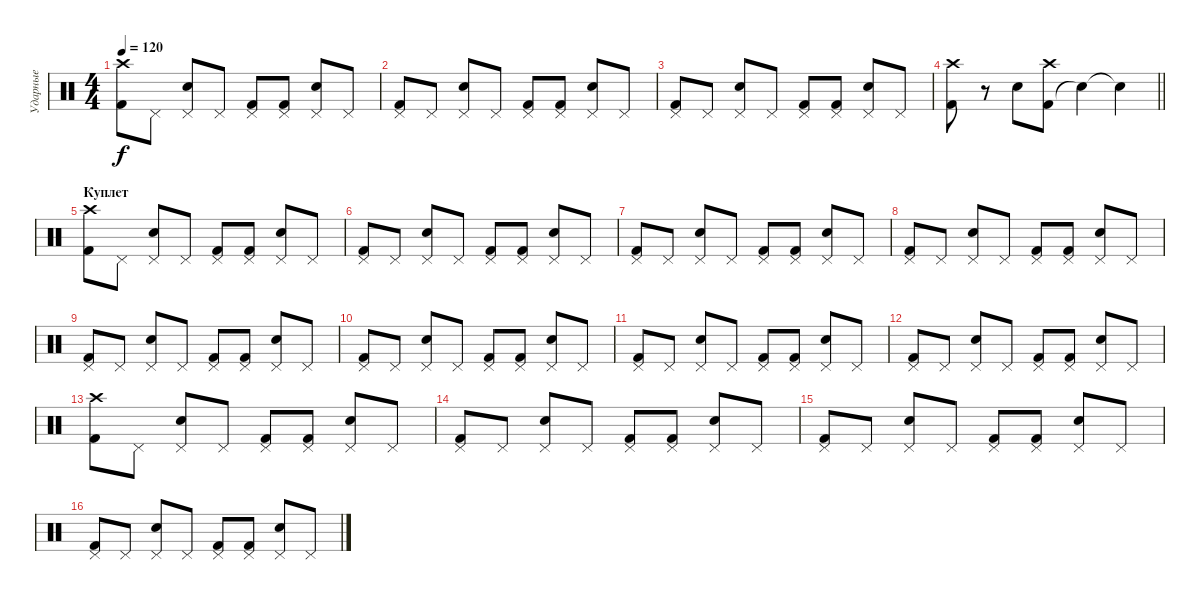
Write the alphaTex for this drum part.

\track ("Ударные" "Ударные") {instrument percussion}
\staff {score}
\articulation defaults
\ts (4 4)
\tempo 120
\clef neutral
\ks c
("Kick (hit) 2" "Crash high (hit)").8{dy f} "Pedal Hi-Hat (hit)".8 ("Electric Snare (hit)" "Pedal Hi-Hat (hit)").8 "Pedal Hi-Hat (hit)".8 ("Kick (hit) 2" "Pedal Hi-Hat (hit)").8 ("Kick (hit) 2" "Pedal Hi-Hat (hit)").8 ("Electric Snare (hit)" "Pedal Hi-Hat (hit)").8 "Pedal Hi-Hat (hit)".8 |
("Kick (hit) 2" "Pedal Hi-Hat (hit)").8 "Pedal Hi-Hat (hit)".8 ("Electric Snare (hit)" "Pedal Hi-Hat (hit)").8 "Pedal Hi-Hat (hit)".8 ("Kick (hit) 2" "Pedal Hi-Hat (hit)").8 ("Kick (hit) 2" "Pedal Hi-Hat (hit)").8 ("Electric Snare (hit)" "Pedal Hi-Hat (hit)").8 "Pedal Hi-Hat (hit)".8 |
("Kick (hit) 2" "Pedal Hi-Hat (hit)").8 "Pedal Hi-Hat (hit)".8 ("Electric Snare (hit)" "Pedal Hi-Hat (hit)").8 "Pedal Hi-Hat (hit)".8 ("Kick (hit) 2" "Pedal Hi-Hat (hit)").8 ("Kick (hit) 2" "Pedal Hi-Hat (hit)").8 ("Electric Snare (hit)" "Pedal Hi-Hat (hit)").8 "Pedal Hi-Hat (hit)".8 |
\barLineRight lightlight
("Kick (hit) 2" "Crash high (hit)").8 r.8 "Electric Snare (hit)".8 ("Kick (hit) 2" "Crash high (hit)").8 "Snare (hit)"{t}.4 "Snare (hit)"{t}.4 |
\section ("" "Куплет")
("Kick (hit) 2" "Crash high (hit)").8 "Pedal Hi-Hat (hit)".8 ("Electric Snare (hit)" "Pedal Hi-Hat (hit)").8 "Pedal Hi-Hat (hit)".8 ("Kick (hit) 2" "Pedal Hi-Hat (hit)").8 ("Kick (hit) 2" "Pedal Hi-Hat (hit)").8 ("Electric Snare (hit)" "Pedal Hi-Hat (hit)").8 "Pedal Hi-Hat (hit)".8 |
("Kick (hit) 2" "Pedal Hi-Hat (hit)").8 "Pedal Hi-Hat (hit)".8 ("Electric Snare (hit)" "Pedal Hi-Hat (hit)").8 "Pedal Hi-Hat (hit)".8 ("Kick (hit) 2" "Pedal Hi-Hat (hit)").8 ("Kick (hit) 2" "Pedal Hi-Hat (hit)").8 ("Electric Snare (hit)" "Pedal Hi-Hat (hit)").8 "Pedal Hi-Hat (hit)".8 |
("Kick (hit) 2" "Pedal Hi-Hat (hit)").8 "Pedal Hi-Hat (hit)".8 ("Electric Snare (hit)" "Pedal Hi-Hat (hit)").8 "Pedal Hi-Hat (hit)".8 ("Kick (hit) 2" "Pedal Hi-Hat (hit)").8 ("Kick (hit) 2" "Pedal Hi-Hat (hit)").8 ("Electric Snare (hit)" "Pedal Hi-Hat (hit)").8 "Pedal Hi-Hat (hit)".8 |
("Kick (hit) 2" "Pedal Hi-Hat (hit)").8 "Pedal Hi-Hat (hit)".8 ("Electric Snare (hit)" "Pedal Hi-Hat (hit)").8 "Pedal Hi-Hat (hit)".8 ("Kick (hit) 2" "Pedal Hi-Hat (hit)").8 ("Kick (hit) 2" "Pedal Hi-Hat (hit)").8 ("Electric Snare (hit)" "Pedal Hi-Hat (hit)").8 "Pedal Hi-Hat (hit)".8 |
("Kick (hit) 2" "Pedal Hi-Hat (hit)").8 "Pedal Hi-Hat (hit)".8 ("Electric Snare (hit)" "Pedal Hi-Hat (hit)").8 "Pedal Hi-Hat (hit)".8 ("Kick (hit) 2" "Pedal Hi-Hat (hit)").8 ("Kick (hit) 2" "Pedal Hi-Hat (hit)").8 ("Electric Snare (hit)" "Pedal Hi-Hat (hit)").8 "Pedal Hi-Hat (hit)".8 |
("Kick (hit) 2" "Pedal Hi-Hat (hit)").8 "Pedal Hi-Hat (hit)".8 ("Electric Snare (hit)" "Pedal Hi-Hat (hit)").8 "Pedal Hi-Hat (hit)".8 ("Kick (hit) 2" "Pedal Hi-Hat (hit)").8 ("Kick (hit) 2" "Pedal Hi-Hat (hit)").8 ("Electric Snare (hit)" "Pedal Hi-Hat (hit)").8 "Pedal Hi-Hat (hit)".8 |
("Kick (hit) 2" "Pedal Hi-Hat (hit)").8 "Pedal Hi-Hat (hit)".8 ("Electric Snare (hit)" "Pedal Hi-Hat (hit)").8 "Pedal Hi-Hat (hit)".8 ("Kick (hit) 2" "Pedal Hi-Hat (hit)").8 ("Kick (hit) 2" "Pedal Hi-Hat (hit)").8 ("Electric Snare (hit)" "Pedal Hi-Hat (hit)").8 "Pedal Hi-Hat (hit)".8 |
("Kick (hit) 2" "Pedal Hi-Hat (hit)").8 "Pedal Hi-Hat (hit)".8 ("Electric Snare (hit)" "Pedal Hi-Hat (hit)").8 "Pedal Hi-Hat (hit)".8 ("Kick (hit) 2" "Pedal Hi-Hat (hit)").8 ("Kick (hit) 2" "Pedal Hi-Hat (hit)").8 ("Electric Snare (hit)" "Pedal Hi-Hat (hit)").8 "Pedal Hi-Hat (hit)".8 |
("Kick (hit) 2" "Crash high (hit)").8 "Pedal Hi-Hat (hit)".8 ("Electric Snare (hit)" "Pedal Hi-Hat (hit)").8 "Pedal Hi-Hat (hit)".8 ("Kick (hit) 2" "Pedal Hi-Hat (hit)").8 ("Kick (hit) 2" "Pedal Hi-Hat (hit)").8 ("Electric Snare (hit)" "Pedal Hi-Hat (hit)").8 "Pedal Hi-Hat (hit)".8 |
("Kick (hit) 2" "Pedal Hi-Hat (hit)").8 "Pedal Hi-Hat (hit)".8 ("Electric Snare (hit)" "Pedal Hi-Hat (hit)").8 "Pedal Hi-Hat (hit)".8 ("Kick (hit) 2" "Pedal Hi-Hat (hit)").8 ("Kick (hit) 2" "Pedal Hi-Hat (hit)").8 ("Electric Snare (hit)" "Pedal Hi-Hat (hit)").8 "Pedal Hi-Hat (hit)".8 |
("Kick (hit) 2" "Pedal Hi-Hat (hit)").8 "Pedal Hi-Hat (hit)".8 ("Electric Snare (hit)" "Pedal Hi-Hat (hit)").8 "Pedal Hi-Hat (hit)".8 ("Kick (hit) 2" "Pedal Hi-Hat (hit)").8 ("Kick (hit) 2" "Pedal Hi-Hat (hit)").8 ("Electric Snare (hit)" "Pedal Hi-Hat (hit)").8 "Pedal Hi-Hat (hit)".8 |
("Kick (hit) 2" "Pedal Hi-Hat (hit)").8 "Pedal Hi-Hat (hit)".8 ("Electric Snare (hit)" "Pedal Hi-Hat (hit)").8 "Pedal Hi-Hat (hit)".8 ("Kick (hit) 2" "Pedal Hi-Hat (hit)").8 ("Kick (hit) 2" "Pedal Hi-Hat (hit)").8 ("Electric Snare (hit)" "Pedal Hi-Hat (hit)").8 "Pedal Hi-Hat (hit)".8
